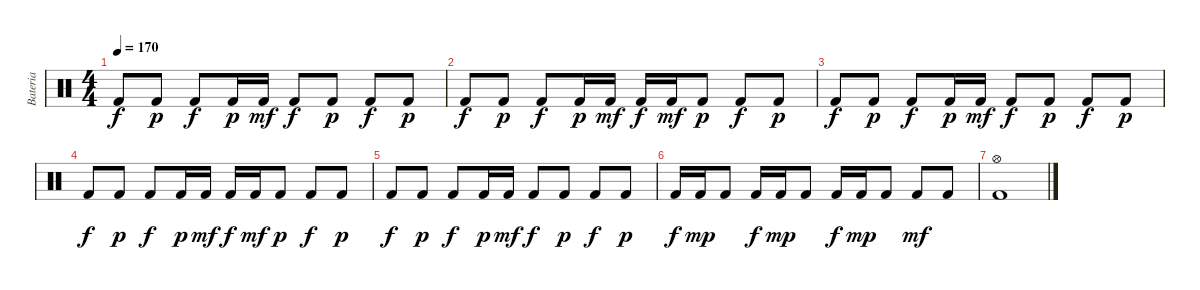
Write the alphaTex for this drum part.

\track ("Bateria" "Bateria") {instrument percussion}
\staff {score}
\articulation defaults
\ts (4 4)
\tempo 170
\clef neutral
\ks c "Kick (hit) 2".8{dy f} "Kick (hit) 2".8{dy p} "Kick (hit) 2".8{dy f} "Kick (hit) 2".16{dy p} "Kick (hit) 2".16{dy mf} "Kick (hit) 2".8{dy f} "Kick (hit) 2".8{dy p} "Kick (hit) 2".8{dy f} "Kick (hit) 2".8{dy p}
|
"Kick (hit) 2".8{dy f} "Kick (hit) 2".8{dy p} "Kick (hit) 2".8{dy f} "Kick (hit) 2".16{dy p} "Kick (hit) 2".16{dy mf} "Kick (hit) 2".16{dy f} "Kick (hit) 2".16{dy mf} "Kick (hit) 2".8{dy p} "Kick (hit) 2".8{dy f} "Kick (hit) 2".8{dy p} |
"Kick (hit) 2".8{dy f} "Kick (hit) 2".8{dy p} "Kick (hit) 2".8{dy f} "Kick (hit) 2".16{dy p} "Kick (hit) 2".16{dy mf} "Kick (hit) 2".8{dy f} "Kick (hit) 2".8{dy p} "Kick (hit) 2".8{dy f} "Kick (hit) 2".8{dy p} |
"Kick (hit) 2".8{dy f} "Kick (hit) 2".8{dy p} "Kick (hit) 2".8{dy f} "Kick (hit) 2".16{dy p} "Kick (hit) 2".16{dy mf} "Kick (hit) 2".16{dy f} "Kick (hit) 2".16{dy mf} "Kick (hit) 2".8{dy p} "Kick (hit) 2".8{dy f} "Kick (hit) 2".8{dy p} |
"Kick (hit) 2".8{dy f} "Kick (hit) 2".8{dy p} "Kick (hit) 2".8{dy f} "Kick (hit) 2".16{dy p} "Kick (hit) 2".16{dy mf} "Kick (hit) 2".8{dy f} "Kick (hit) 2".8{dy p} "Kick (hit) 2".8{dy f} "Kick (hit) 2".8{dy p} |
"Kick (hit) 2".16{dy f} "Kick (hit) 2".16{dy mp} "Kick (hit) 2".8 "Kick (hit) 2".16{dy f} "Kick (hit) 2".16{dy mp} "Kick (hit) 2".8 "Kick (hit) 2".16{dy f} "Kick (hit) 2".16{dy mp} "Kick (hit) 2".8 "Kick (hit) 2".8{dy mf} "Kick (hit) 2".8 |
("Hi-Hat (open)" "Kick (hit) 2").1
